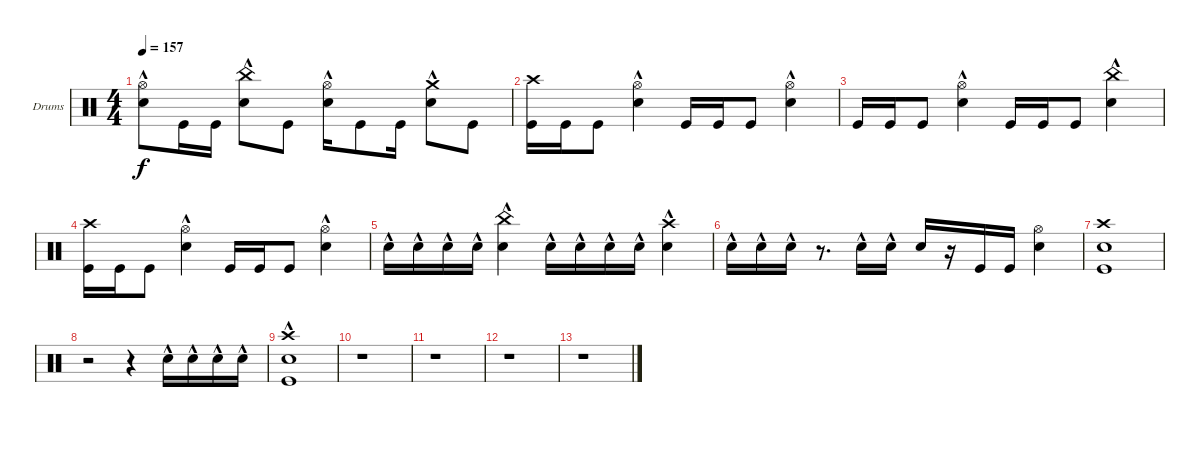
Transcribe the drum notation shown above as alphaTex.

\defaultSystemsLayout 4
\bracketExtendMode groupsimilarinstruments
\firstSystemTrackNameOrientation horizontal
\otherSystemsTrackNameOrientation horizontal
\track ("Drumkit - Natsu" "Drums") {instrument percussion}
\staff {score}
\articulation defaults
\ts (4 4)
\tempo 157
\clef neutral
\ks c
("Snare (hit) 2"{hac} "Hi-Hat (open)").8{dy f} "Kick (hit)".16 "Kick (hit)".16 ("Snare (hit) 2"{hac} "China (hit)"{hac}).8 "Kick (hit)".8 ("Snare (hit) 2"{hac} "Hi-Hat (open)").16 "Kick (hit)".8 "Kick (hit)".16 ("Snare (hit) 2"{hac} "Crash medium (hit)"{hac}).8 "Kick (hit)".8 |
("Kick (hit)" "Crash high (hit)").16 "Kick (hit)".16 "Kick (hit)".8 ("Snare (hit) 2"{hac} "Hi-Hat (open)").4 "Kick (hit)".16 "Kick (hit)".16 "Kick (hit)".8 ("Snare (hit) 2"{hac} "Hi-Hat (open)").4 |
"Kick (hit)".16 "Kick (hit)".16 "Kick (hit)".8 ("Snare (hit) 2"{hac} "Hi-Hat (open)").4 "Kick (hit)".16 "Kick (hit)".16 "Kick (hit)".8 ("Snare (hit) 2"{hac} "China (hit)"{hac}).4 |
("Kick (hit)" "Crash high (hit)").16 "Kick (hit)".16 "Kick (hit)".8 ("Snare (hit) 2"{hac} "Hi-Hat (open)").4 "Kick (hit)".16 "Kick (hit)".16 "Kick (hit)".8 ("Snare (hit) 2"{hac} "Hi-Hat (open)").4 |
"Snare (hit) 2"{hac}.16 "Snare (hit) 2"{hac}.16 "Snare (hit) 2"{hac}.16 "Snare (hit) 2"{hac}.16 ("Snare (hit) 2"{hac} "China (hit)"{hac}).4 "Snare (hit) 2"{hac}.16 "Snare (hit) 2"{hac}.16 "Snare (hit) 2"{hac}.16 "Snare (hit) 2"{hac}.16 ("Snare (hit) 2"{hac} "Crash high (hit)").4 |
"Snare (hit) 2"{hac}.16 "Snare (hit) 2"{hac}.16 "Snare (hit) 2"{hac}.16 r.8{d} "Snare (hit) 2"{hac}.16 "Snare (hit) 2"{hac}.16 "Snare (hit) 2".16 r.16 "Kick (hit)".16 "Kick (hit)".16 ("Snare (hit) 2" "Hi-Hat (open)").4 |
("Snare (hit) 2" "Crash high (hit)" "Kick (hit)").1 |
r.2 r.4 "Snare (hit) 2"{hac}.16 "Snare (hit) 2"{hac}.16 "Snare (hit) 2"{hac}.16 "Snare (hit) 2"{hac}.16 |
("Snare (hit) 2"{hac} "Kick (hit)"{hac} "Crash high (hit)").1 |
r.1 |
r.1 |
r.1 |
r.1
